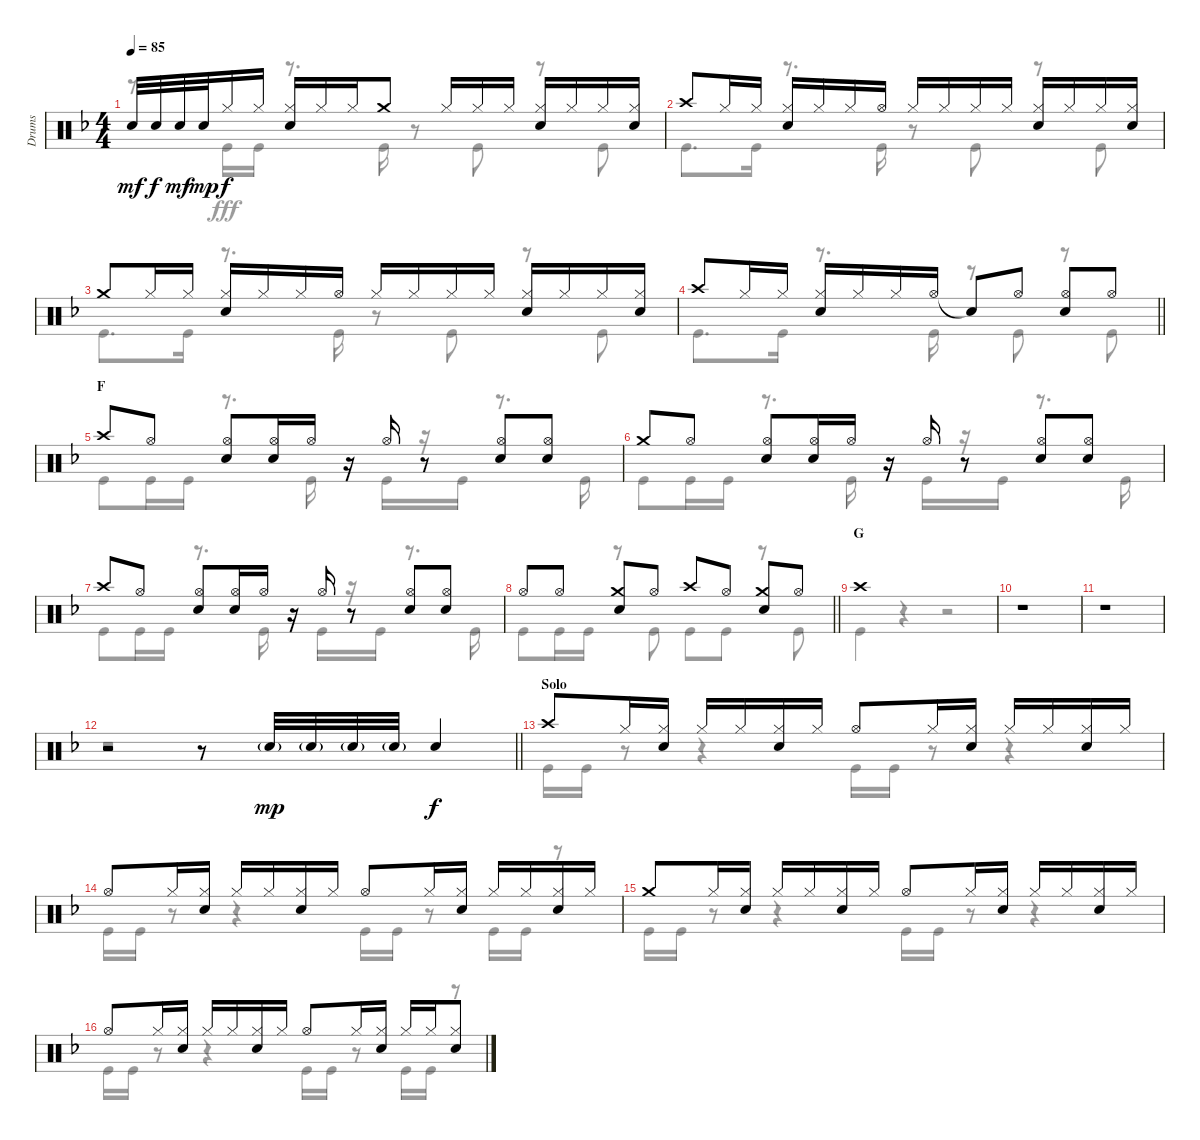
\track ("Drums" "Drums") {instrument percussion}
\staff {score}
\articulation defaults
\voice
\ts (4 4)
\tempo 85
\clef neutral
\ks f "Snare (hit) 2".32{dy mf} "Snare (hit) 2".32{dy f} "Snare (hit) 2".32{dy mf} "Snare (hit) 2".32{dy mp} "Hi-Hat (closed)".16{dy f} "Hi-Hat (closed)".16
("Hi-Hat (closed)" "Snare (hit) 2").16 "Hi-Hat (closed)".16 "Hi-Hat (closed)".16 "Crash medium (hit)".8 "Hi-Hat (closed)".16 "Hi-Hat (closed)".16 "Hi-Hat (closed)".16 ("Hi-Hat (closed)" "Snare (hit) 2").16 "Hi-Hat (closed)".16 "Hi-Hat (closed)".16 ("Hi-Hat (closed)" "Snare (hit) 2").16 |
"Crash high (hit)".8 "Hi-Hat (closed)".16 "Hi-Hat (closed)".16 ("Hi-Hat (closed)" "Snare (hit) 2").16 "Hi-Hat (closed)".16 "Hi-Hat (closed)".16 "Hi-Hat (open)".16 "Hi-Hat (closed)".16 "Hi-Hat (closed)".16 "Hi-Hat (closed)".16 "Hi-Hat (closed)".16 ("Hi-Hat (closed)" "Snare (hit) 2").16 "Hi-Hat (closed)".16 "Hi-Hat (closed)".16 ("Hi-Hat (closed)" "Snare (hit) 2").16 |
"Crash medium (hit)".8 "Hi-Hat (closed)".16 "Hi-Hat (closed)".16 ("Hi-Hat (closed)" "Snare (hit) 2").16 "Hi-Hat (closed)".16 "Hi-Hat (closed)".16 "Hi-Hat (open)".16 "Hi-Hat (closed)".16 "Hi-Hat (closed)".16 "Hi-Hat (closed)".16 "Hi-Hat (closed)".16 ("Hi-Hat (closed)" "Snare (hit) 2").16 "Hi-Hat (closed)".16 "Hi-Hat (closed)".16 ("Hi-Hat (closed)" "Snare (hit) 2").16 |
\barLineRight lightlight "Crash high (hit)".8 "Hi-Hat (closed)".16 "Hi-Hat (closed)".16
("Hi-Hat (closed)" "Snare (hit) 2").16 "Hi-Hat (closed)".16 "Hi-Hat (closed)".16 "Hi-Hat (open)".16 "Snare (hit)"{t}.8 "Hi-Hat (open)".8 ("Hi-Hat (open)" "Snare (hit) 2").8 "Hi-Hat (open)".8 |
\section ("" "F")
"Crash high (hit)".8 "Hi-Hat (open)".8 ("Hi-Hat (open)" "Snare (hit) 2").8 ("Hi-Hat (open)" "Snare (hit) 2").16 "Hi-Hat (open)".16 r.16 "Hi-Hat (open)".16 r.8 ("Hi-Hat (open)" "Snare (hit) 2").8 ("Hi-Hat (open)" "Snare (hit) 2").8 |
"Crash medium (hit)".8 "Hi-Hat (open)".8 ("Hi-Hat (open)" "Snare (hit) 2").8 ("Hi-Hat (open)" "Snare (hit) 2").16 "Hi-Hat (open)".16 r.16 "Hi-Hat (open)".16 r.8 ("Hi-Hat (open)" "Snare (hit) 2").8 ("Hi-Hat (open)" "Snare (hit) 2").8 |
"Crash high (hit)".8 "Hi-Hat (open)".8 ("Hi-Hat (open)" "Snare (hit) 2").8 ("Hi-Hat (open)" "Snare (hit) 2").16 "Hi-Hat (open)".16 r.16 "Hi-Hat (open)".16 r.8 ("Hi-Hat (open)" "Snare (hit) 2").8 ("Hi-Hat (open)" "Snare (hit) 2").8 |
\barLineRight lightlight "Hi-Hat (open)".8 "Hi-Hat (open)".8
("Crash medium (hit)" "Snare (hit) 2").8 "Hi-Hat (open)".8 "Crash high (hit)".8 "Hi-Hat (open)".8 ("Crash medium (hit)" "Snare (hit) 2").8 "Hi-Hat (open)".8 |
\section ("" "G")
"Crash high (hit)".1 |
r.1 |
r.1 |
\barLineRight lightlight
r.2 r.8 "Snare (hit) 2"{g}.32{dy mp} "Snare (hit) 2"{g}.32 "Snare (hit) 2"{g}.32 "Snare (hit) 2"{g}.32 "Snare (hit) 2".4{dy f} |
\section ("" "Solo")
"Crash high (hit)".8 "Hi-Hat (closed)".16 ("Hi-Hat (closed)" "Snare (hit) 2").16 "Hi-Hat (closed)".16 "Hi-Hat (closed)".16 ("Hi-Hat (closed)" "Snare (hit) 2").16 "Hi-Hat (closed)".16 "Hi-Hat (open)".8 "Hi-Hat (closed)".16 ("Hi-Hat (closed)" "Snare (hit) 2").16 "Hi-Hat (closed)".16 "Hi-Hat (closed)".16 ("Hi-Hat (closed)" "Snare (hit) 2").16 "Hi-Hat (closed)".16 |
"Hi-Hat (open)".8 "Hi-Hat (closed)".16 ("Hi-Hat (closed)" "Snare (hit) 2").16 "Hi-Hat (closed)".16 "Hi-Hat (closed)".16 ("Hi-Hat (closed)" "Snare (hit) 2").16 "Hi-Hat (closed)".16 "Hi-Hat (open)".8 "Hi-Hat (closed)".16 ("Hi-Hat (closed)" "Snare (hit) 2").16 "Hi-Hat (closed)".16 "Hi-Hat (closed)".16 ("Hi-Hat (closed)" "Snare (hit) 2").16 "Hi-Hat (closed)".16 |
"Crash medium (hit)".8 "Hi-Hat (closed)".16 ("Hi-Hat (closed)" "Snare (hit) 2").16 "Hi-Hat (closed)".16 "Hi-Hat (closed)".16 ("Hi-Hat (closed)" "Snare (hit) 2").16 "Hi-Hat (closed)".16 "Hi-Hat (open)".8 "Hi-Hat (closed)".16 ("Hi-Hat (closed)" "Snare (hit) 2").16 "Hi-Hat (closed)".16 "Hi-Hat (closed)".16 ("Hi-Hat (closed)" "Snare (hit) 2").16 "Hi-Hat (closed)".16 |
"Hi-Hat (open)".8 "Hi-Hat (closed)".16 ("Hi-Hat (closed)" "Snare (hit) 2").16 "Hi-Hat (closed)".16 "Hi-Hat (closed)".16 ("Hi-Hat (closed)" "Snare (hit) 2").16 "Hi-Hat (closed)".16 "Hi-Hat (open)".8 "Hi-Hat (closed)".16 ("Hi-Hat (closed)" "Snare (hit) 2").16 "Hi-Hat (closed)".16 "Hi-Hat (closed)".16 ("Hi-Hat (closed)" "Snare (hit) 2").8
\voice
\clef neutral
\ottava regular
\simile none
\ks f
r.8{dy fff} "Kick (hit)".16 "Kick (hit)".16 r.8{d} "Kick (hit)".16 r.8 "Kick (hit)".8 r.8 "Kick (hit)".8 |
"Kick (hit)".8{d} "Kick (hit)".16 r.8{d} "Kick (hit)".16 r.8 "Kick (hit)".8 r.8 "Kick (hit)".8 |
"Kick (hit)".8{d} "Kick (hit)".16 r.8{d} "Kick (hit)".16 r.8 "Kick (hit)".8 r.8 "Kick (hit)".8 |
\barLineRight lightlight "Kick (hit)".8{d} "Kick (hit)".16
r.8{d} "Kick (hit)".16 r.8 "Kick (hit)".8 r.8 "Kick (hit)".8 |
"Kick (hit)".8 "Kick (hit)".16 "Kick (hit)".16 r.8{d} "Kick (hit)".16 r.16 "Kick (hit)".16 r.16 "Kick (hit)".16 r.8{d} "Kick (hit)".16 |
"Kick (hit)".8 "Kick (hit)".16 "Kick (hit)".16 r.8{d} "Kick (hit)".16 r.16 "Kick (hit)".16 r.16 "Kick (hit)".16 r.8{d} "Kick (hit)".16 |
"Kick (hit)".8 "Kick (hit)".16 "Kick (hit)".16 r.8{d} "Kick (hit)".16 r.16 "Kick (hit)".16 r.16 "Kick (hit)".16 r.8{d} "Kick (hit)".16 |
\barLineRight lightlight "Kick (hit)".8 "Kick (hit)".16 "Kick (hit)".16
r.8 "Kick (hit)".8 "Kick (hit)".8 "Kick (hit)".8 r.8 "Kick (hit)".8 |
"Kick (hit)".4 r.4 r.2 |
r.1 |
r.1 |
\barLineRight lightlight
r.1 |
"Kick (hit)".16 "Kick (hit)".16 r.8 r.4 "Kick (hit)".16 "Kick (hit)".16 r.8 r.4 |
"Kick (hit)".16 "Kick (hit)".16 r.8 r.4 "Kick (hit)".16 "Kick (hit)".16 r.8 "Kick (hit)".16 "Kick (hit)".16 r.8 |
"Kick (hit)".16 "Kick (hit)".16 r.8 r.4 "Kick (hit)".16 "Kick (hit)".16 r.8 r.4 |
"Kick (hit)".16 "Kick (hit)".16 r.8 r.4 "Kick (hit)".16 "Kick (hit)".16 r.8 "Kick (hit)".16 "Kick (hit)".16 r.8
